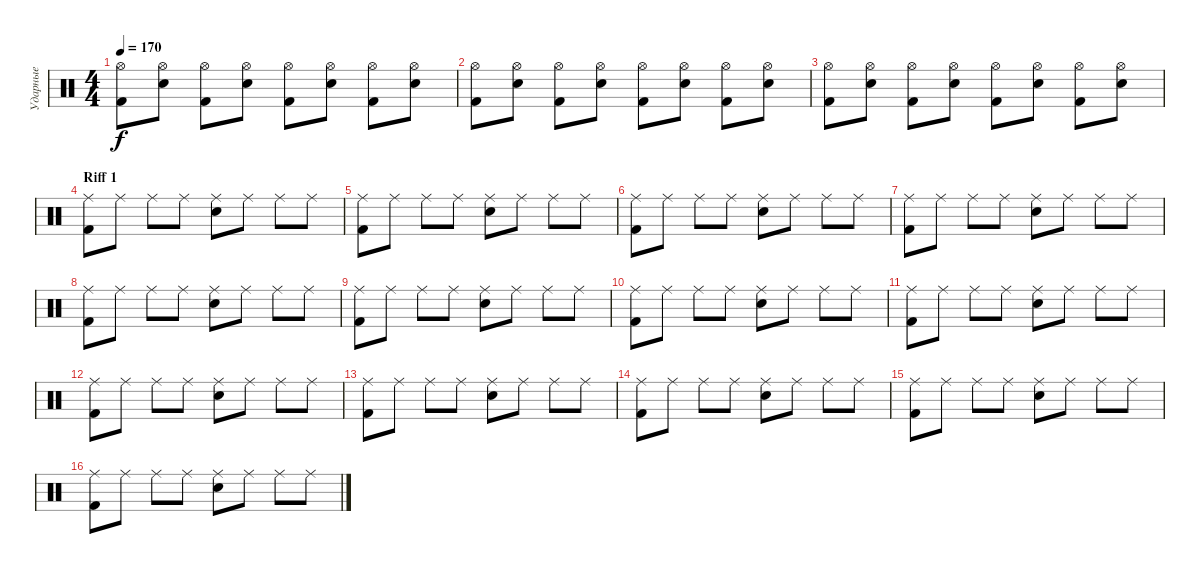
\track ("Ударные" "Ударные") {instrument percussion}
\staff {score}
\articulation defaults
\ts (4 4)
\tempo 170
\clef neutral
\ks c
("Hi-Hat (open)" "Kick (hit) 2").8{dy f} ("Hi-Hat (open)" "Snare (hit) 2").8 ("Hi-Hat (open)" "Kick (hit) 2").8 ("Hi-Hat (open)" "Snare (hit) 2").8 ("Hi-Hat (open)" "Kick (hit) 2").8 ("Hi-Hat (open)" "Snare (hit) 2").8 ("Hi-Hat (open)" "Kick (hit) 2").8 ("Hi-Hat (open)" "Snare (hit) 2").8 |
("Hi-Hat (open)" "Kick (hit) 2").8 ("Hi-Hat (open)" "Snare (hit) 2").8 ("Hi-Hat (open)" "Kick (hit) 2").8 ("Hi-Hat (open)" "Snare (hit) 2").8 ("Hi-Hat (open)" "Kick (hit) 2").8 ("Hi-Hat (open)" "Snare (hit) 2").8 ("Hi-Hat (open)" "Kick (hit) 2").8 ("Hi-Hat (open)" "Snare (hit) 2").8 |
("Hi-Hat (open)" "Kick (hit) 2").8 ("Hi-Hat (open)" "Snare (hit) 2").8 ("Hi-Hat (open)" "Kick (hit) 2").8 ("Hi-Hat (open)" "Snare (hit) 2").8 ("Hi-Hat (open)" "Kick (hit) 2").8 ("Hi-Hat (open)" "Snare (hit) 2").8 ("Hi-Hat (open)" "Kick (hit) 2").8 ("Hi-Hat (open)" "Snare (hit) 2").8 |
\section ("" "Riff 1")
("Ride (middle)" "Kick (hit) 2").8 "Ride (middle)".8 "Ride (middle)".8 "Ride (middle)".8 ("Ride (middle)" "Snare (hit) 2").8 "Ride (middle)".8 "Ride (middle)".8 "Ride (middle)".8 |
("Ride (middle)" "Kick (hit) 2").8 "Ride (middle)".8 "Ride (middle)".8 "Ride (middle)".8 ("Ride (middle)" "Snare (hit) 2").8 "Ride (middle)".8 "Ride (middle)".8 "Ride (middle)".8 |
("Ride (middle)" "Kick (hit) 2").8 "Ride (middle)".8 "Ride (middle)".8 "Ride (middle)".8 ("Ride (middle)" "Snare (hit) 2").8 "Ride (middle)".8 "Ride (middle)".8 "Ride (middle)".8 |
("Ride (middle)" "Kick (hit) 2").8 "Ride (middle)".8 "Ride (middle)".8 "Ride (middle)".8 ("Ride (middle)" "Snare (hit) 2").8 "Ride (middle)".8 "Ride (middle)".8 "Ride (middle)".8 |
("Ride (middle)" "Kick (hit) 2").8 "Ride (middle)".8 "Ride (middle)".8 "Ride (middle)".8 ("Ride (middle)" "Snare (hit) 2").8 "Ride (middle)".8 "Ride (middle)".8 "Ride (middle)".8 |
("Ride (middle)" "Kick (hit) 2").8 "Ride (middle)".8 "Ride (middle)".8 "Ride (middle)".8 ("Ride (middle)" "Snare (hit) 2").8 "Ride (middle)".8 "Ride (middle)".8 "Ride (middle)".8 |
("Ride (middle)" "Kick (hit) 2").8 "Ride (middle)".8 "Ride (middle)".8 "Ride (middle)".8 ("Ride (middle)" "Snare (hit) 2").8 "Ride (middle)".8 "Ride (middle)".8 "Ride (middle)".8 |
("Ride (middle)" "Kick (hit) 2").8 "Ride (middle)".8 "Ride (middle)".8 "Ride (middle)".8 ("Ride (middle)" "Snare (hit) 2").8 "Ride (middle)".8 "Ride (middle)".8 "Ride (middle)".8 |
("Ride (middle)" "Kick (hit) 2").8 "Ride (middle)".8 "Ride (middle)".8 "Ride (middle)".8 ("Ride (middle)" "Snare (hit) 2").8 "Ride (middle)".8 "Ride (middle)".8 "Ride (middle)".8 |
("Ride (middle)" "Kick (hit) 2").8 "Ride (middle)".8 "Ride (middle)".8 "Ride (middle)".8 ("Ride (middle)" "Snare (hit) 2").8 "Ride (middle)".8 "Ride (middle)".8 "Ride (middle)".8 |
("Ride (middle)" "Kick (hit) 2").8 "Ride (middle)".8 "Ride (middle)".8 "Ride (middle)".8 ("Ride (middle)" "Snare (hit) 2").8 "Ride (middle)".8 "Ride (middle)".8 "Ride (middle)".8 |
("Ride (middle)" "Kick (hit) 2").8 "Ride (middle)".8 "Ride (middle)".8 "Ride (middle)".8 ("Ride (middle)" "Snare (hit) 2").8 "Ride (middle)".8 "Ride (middle)".8 "Ride (middle)".8 |
("Ride (middle)" "Kick (hit) 2").8 "Ride (middle)".8 "Ride (middle)".8 "Ride (middle)".8 ("Ride (middle)" "Snare (hit) 2").8 "Ride (middle)".8 "Ride (middle)".8 "Ride (middle)".8
